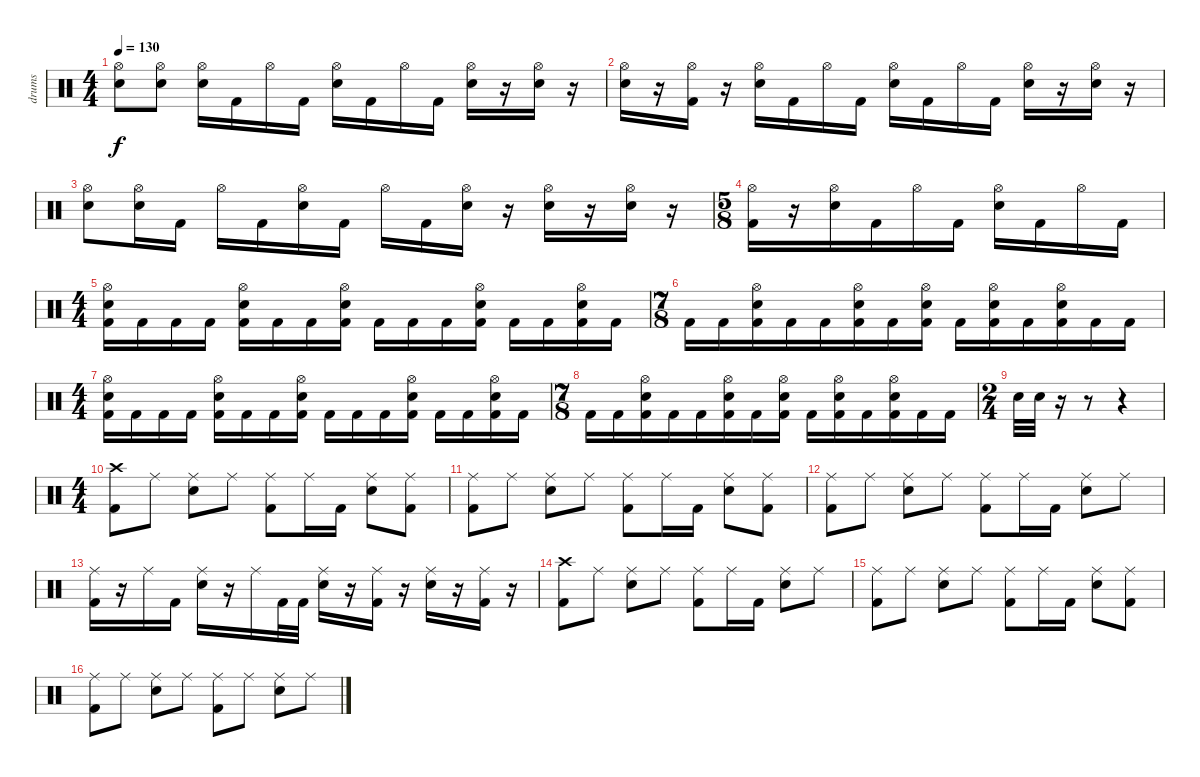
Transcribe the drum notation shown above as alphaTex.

\track ("drums" "drums") {instrument percussion}
\staff {score}
\articulation defaults
\ts (4 4)
\tempo 130
\clef neutral
\ks c
("Hi-Hat (open)" "Snare (hit) 2").8{dy f} ("Hi-Hat (open)" "Snare (hit) 2").8 ("Hi-Hat (open)" "Snare (hit) 2").16 "Kick (hit) 2".16 "Hi-Hat (open)".16 "Kick (hit) 2".16 ("Hi-Hat (open)" "Snare (hit) 2").16 "Kick (hit) 2".16 "Hi-Hat (open)".16 "Kick (hit) 2".16 ("Hi-Hat (open)" "Snare (hit) 2").16 r.16 ("Hi-Hat (open)" "Snare (hit) 2").16 r.16 |
("Hi-Hat (open)" "Snare (hit) 2").16 r.16 ("Hi-Hat (open)" "Kick (hit) 2").16 r.16 ("Hi-Hat (open)" "Snare (hit) 2").16 "Kick (hit) 2".16 "Hi-Hat (open)".16 "Kick (hit) 2".16 ("Hi-Hat (open)" "Snare (hit) 2").16 "Kick (hit) 2".16 "Hi-Hat (open)".16 "Kick (hit) 2".16 ("Hi-Hat (open)" "Snare (hit) 2").16 r.16 ("Hi-Hat (open)" "Snare (hit) 2").16 r.16 |
("Hi-Hat (open)" "Snare (hit) 2").8 ("Hi-Hat (open)" "Snare (hit) 2").16 "Kick (hit) 2".16 "Hi-Hat (open)".16 "Kick (hit) 2".16 ("Hi-Hat (open)" "Snare (hit) 2").16 "Kick (hit) 2".16 "Hi-Hat (open)".16 "Kick (hit) 2".16 ("Hi-Hat (open)" "Snare (hit) 2").16 r.16 ("Hi-Hat (open)" "Snare (hit) 2").16 r.16 ("Hi-Hat (open)" "Snare (hit) 2").16 r.16 |
\ts (5 8)
("Hi-Hat (open)" "Kick (hit) 2").16 r.16 ("Hi-Hat (open)" "Snare (hit) 2").16 "Kick (hit) 2".16 "Hi-Hat (open)".16 "Kick (hit) 2".16 ("Hi-Hat (open)" "Snare (hit) 2").16 "Kick (hit) 2".16 "Hi-Hat (open)".16 "Kick (hit) 2".16 |
\ts (4 4)
("Hi-Hat (open)" "Snare (hit) 2" "Kick (hit) 2").16 "Kick (hit) 2".16 "Kick (hit) 2".16 "Kick (hit) 2".16 ("Hi-Hat (open)" "Snare (hit) 2" "Kick (hit) 2").16 "Kick (hit) 2".16 "Kick (hit) 2".16 ("Hi-Hat (open)" "Snare (hit) 2" "Kick (hit) 2").16 "Kick (hit) 2".16 "Kick (hit) 2".16 "Kick (hit) 2".16 ("Hi-Hat (open)" "Snare (hit) 2" "Kick (hit) 2").16 "Kick (hit) 2".16 "Kick (hit) 2".16 ("Hi-Hat (open)" "Snare (hit) 2" "Kick (hit) 2").16 "Kick (hit) 2".16 |
\ts (7 8)
"Kick (hit) 2".16 "Kick (hit) 2".16 ("Hi-Hat (open)" "Snare (hit) 2" "Kick (hit) 2").16 "Kick (hit) 2".16 "Kick (hit) 2".16 ("Hi-Hat (open)" "Kick (hit) 2" "Snare (hit) 2").16 "Kick (hit) 2".16 ("Hi-Hat (open)" "Kick (hit) 2" "Snare (hit) 2").16 "Kick (hit) 2".16 ("Hi-Hat (open)" "Kick (hit) 2" "Snare (hit) 2").16 "Kick (hit) 2".16 ("Hi-Hat (open)" "Kick (hit) 2" "Snare (hit) 2").16 "Kick (hit) 2".16 "Kick (hit) 2".16 |
\ts (4 4)
("Hi-Hat (open)" "Snare (hit) 2" "Kick (hit) 2").16 "Kick (hit) 2".16 "Kick (hit) 2".16 "Kick (hit) 2".16 ("Hi-Hat (open)" "Snare (hit) 2" "Kick (hit) 2").16 "Kick (hit) 2".16 "Kick (hit) 2".16 ("Hi-Hat (open)" "Snare (hit) 2" "Kick (hit) 2").16 "Kick (hit) 2".16 "Kick (hit) 2".16 "Kick (hit) 2".16 ("Hi-Hat (open)" "Snare (hit) 2" "Kick (hit) 2").16 "Kick (hit) 2".16 "Kick (hit) 2".16 ("Hi-Hat (open)" "Snare (hit) 2" "Kick (hit) 2").16 "Kick (hit) 2".16 |
\ts (7 8)
"Kick (hit) 2".16 "Kick (hit) 2".16 ("Hi-Hat (open)" "Snare (hit) 2" "Kick (hit) 2").16 "Kick (hit) 2".16 "Kick (hit) 2".16 ("Hi-Hat (open)" "Kick (hit) 2" "Snare (hit) 2").16 "Kick (hit) 2".16 ("Hi-Hat (open)" "Kick (hit) 2" "Snare (hit) 2").16 "Kick (hit) 2".16 ("Hi-Hat (open)" "Kick (hit) 2" "Snare (hit) 2").16 "Kick (hit) 2".16 ("Hi-Hat (open)" "Kick (hit) 2" "Snare (hit) 2").16 "Kick (hit) 2".16 "Kick (hit) 2".16 |
\ts (2 4)
"Snare (hit) 2".32 "Snare (hit) 2".32 r.16 r.8 r.4 |
\ts (4 4)
("Crash high (hit)" "Kick (hit) 2").8 "Ride (middle)".8 ("Ride (middle)" "Snare (hit) 2").8 "Ride (middle)".8 ("Ride (middle)" "Kick (hit) 2").8 "Ride (middle)".16 "Kick (hit) 2".16 ("Ride (middle)" "Snare (hit) 2").8 ("Ride (middle)" "Kick (hit) 2").8 |
("Ride (middle)" "Kick (hit) 2").8 "Ride (middle)".8 ("Ride (middle)" "Snare (hit) 2").8 "Ride (middle)".8 ("Ride (middle)" "Kick (hit) 2").8 "Ride (middle)".16 "Kick (hit) 2".16 ("Ride (middle)" "Snare (hit) 2").8 ("Ride (middle)" "Kick (hit) 2").8 |
("Ride (middle)" "Kick (hit) 2").8 "Ride (middle)".8 ("Ride (middle)" "Snare (hit) 2").8 "Ride (middle)".8 ("Ride (middle)" "Kick (hit) 2").8 "Ride (middle)".16 "Kick (hit) 2".16 ("Ride (middle)" "Snare (hit) 2").8 "Ride (middle)".8 |
("Ride (middle)" "Kick (hit) 2").16 r.16 "Ride (middle)".16 "Kick (hit) 2".16 ("Ride (middle)" "Snare (hit) 2").16 r.16 "Ride (middle)".16 "Kick (hit) 2".32 "Kick (hit) 2".32 ("Ride (middle)" "Snare (hit) 2").16 r.16 ("Ride (middle)" "Kick (hit) 2").16 r.16 ("Ride (middle)" "Snare (hit) 2").16 r.16 ("Ride (middle)" "Kick (hit) 2").16 r.16 |
("Crash high (hit)" "Kick (hit) 2").8 "Ride (middle)".8 ("Ride (middle)" "Snare (hit) 2").8 "Ride (middle)".8 ("Ride (middle)" "Kick (hit) 2").8 "Ride (middle)".16 "Kick (hit) 2".16 ("Ride (middle)" "Snare (hit) 2").8 "Ride (middle)".8 |
("Ride (middle)" "Kick (hit) 2").8 "Ride (middle)".8 ("Ride (middle)" "Snare (hit) 2").8 "Ride (middle)".8 ("Ride (middle)" "Kick (hit) 2").8 "Ride (middle)".16 "Kick (hit) 2".16 ("Ride (middle)" "Snare (hit) 2").8 ("Ride (middle)" "Kick (hit) 2").8 |
("Ride (middle)" "Kick (hit) 2").8 "Ride (middle)".8 ("Ride (middle)" "Snare (hit) 2").8 "Ride (middle)".8 ("Ride (middle)" "Kick (hit) 2").8 "Ride (middle)".8 ("Ride (middle)" "Snare (hit) 2").8 "Ride (middle)".8
